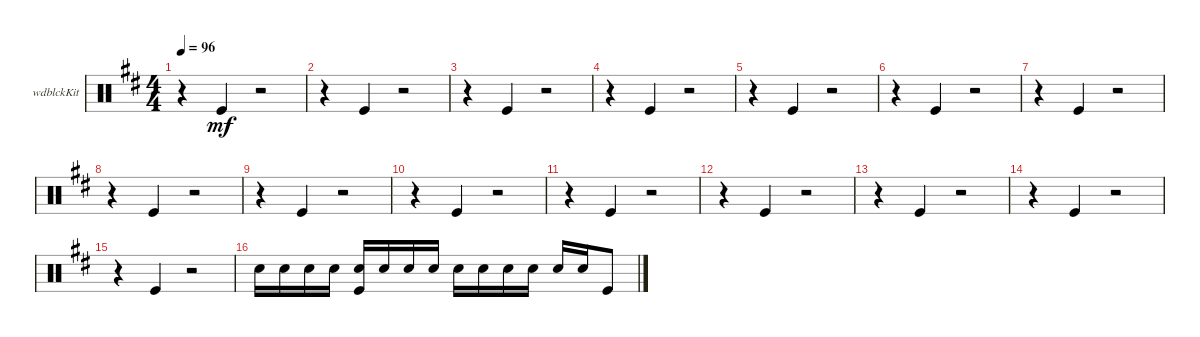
\defaultSystemsLayout 4
\bracketExtendMode groupsimilarinstruments
\firstSystemTrackNameOrientation horizontal
\otherSystemsTrackNameOrientation horizontal
\track ("Woodblock" "wdblckKit") {instrument percussion}
\staff {score}
\articulation defaults
\ts (4 4)
\tempo 96
\clef neutral
\ks d
r.4{dy mf} "Kick (hit)".4 r.2 |
r.4 "Kick (hit)".4 r.2 |
r.4 "Kick (hit)".4 r.2 |
r.4 "Kick (hit)".4 r.2 |
r.4 "Kick (hit)".4 r.2 |
r.4 "Kick (hit)".4 r.2 |
r.4 "Kick (hit)".4 r.2 |
r.4 "Kick (hit)".4 r.2 |
r.4 "Kick (hit)".4 r.2 |
r.4 "Kick (hit)".4 r.2 |
r.4 "Kick (hit)".4 r.2 |
r.4 "Kick (hit)".4 r.2 |
r.4 "Kick (hit)".4 r.2 |
r.4 "Kick (hit)".4 r.2 |
r.4 "Kick (hit)".4 r.2 |
"Snare (hit) 2".16 "Snare (hit) 2".16 "Snare (hit) 2".16 "Snare (hit) 2".16 ("Snare (hit) 2" "Kick (hit)").16 "Snare (hit) 2".16 "Snare (hit) 2".16 "Snare (hit) 2".16 "Snare (hit) 2".16 "Snare (hit) 2".16 "Snare (hit) 2".16 "Snare (hit) 2".16 "Snare (hit) 2".16 "Snare (hit) 2".16 "Kick (hit)".8
